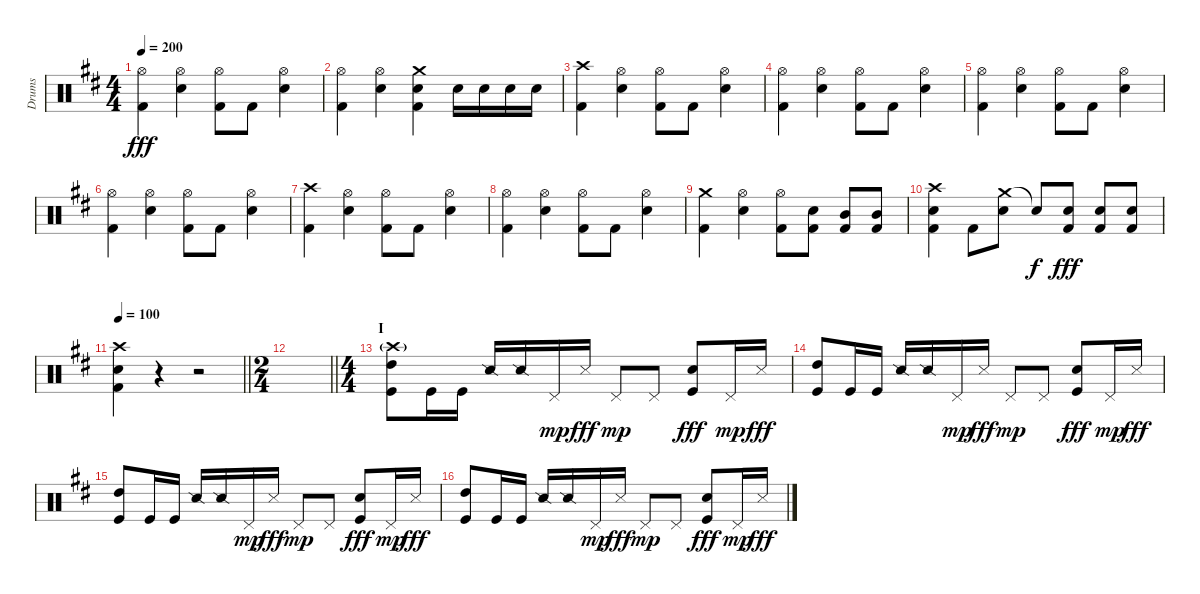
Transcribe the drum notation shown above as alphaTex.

\track ("Drums" "Drums") {instrument percussion}
\staff {score}
\articulation defaults
\ts (4 4)
\tempo 200
\clef neutral
\ks d
("Hi-Hat (open)" "Kick (hit) 2").4{dy fff} ("Hi-Hat (open)" "Snare (hit) 2").4 ("Hi-Hat (open)" "Kick (hit) 2").8 "Kick (hit) 2".8 ("Hi-Hat (open)" "Snare (hit) 2").4 |
("Hi-Hat (open)" "Kick (hit) 2").4 ("Hi-Hat (open)" "Snare (hit) 2").4 ("Crash medium (hit)" "Snare (hit) 2" "Kick (hit) 2").4 "Snare (hit) 2".16 "Snare (hit) 2".16 "Snare (hit) 2".16 "Snare (hit) 2".16 |
("Crash high (hit)" "Kick (hit) 2").4 ("Hi-Hat (open)" "Snare (hit) 2").4 ("Hi-Hat (open)" "Kick (hit) 2").8 "Kick (hit) 2".8 ("Hi-Hat (open)" "Snare (hit) 2").4 |
("Hi-Hat (open)" "Kick (hit) 2").4 ("Hi-Hat (open)" "Snare (hit) 2").4 ("Hi-Hat (open)" "Kick (hit) 2").8 "Kick (hit) 2".8 ("Hi-Hat (open)" "Snare (hit) 2").4 |
("Hi-Hat (open)" "Kick (hit) 2").4 ("Hi-Hat (open)" "Snare (hit) 2").4 ("Hi-Hat (open)" "Kick (hit) 2").8 "Kick (hit) 2".8 ("Hi-Hat (open)" "Snare (hit) 2").4 |
("Hi-Hat (open)" "Kick (hit) 2").4 ("Hi-Hat (open)" "Snare (hit) 2").4 ("Hi-Hat (open)" "Kick (hit) 2").8 "Kick (hit) 2".8 ("Hi-Hat (open)" "Snare (hit) 2").4 |
("Crash high (hit)" "Kick (hit) 2").4 ("Hi-Hat (open)" "Snare (hit) 2").4 ("Hi-Hat (open)" "Kick (hit) 2").8 "Kick (hit) 2".8 ("Hi-Hat (open)" "Snare (hit) 2").4 |
("Hi-Hat (open)" "Kick (hit) 2").4 ("Hi-Hat (open)" "Snare (hit) 2").4 ("Hi-Hat (open)" "Kick (hit) 2").8 "Kick (hit) 2".8 ("Hi-Hat (open)" "Snare (hit) 2").4 |
("Crash medium (hit)" "Kick (hit) 2").4 ("Hi-Hat (open)" "Snare (hit) 2").4 ("Hi-Hat (open)" "Kick (hit) 2").8 ("Snare (hit) 2" "Kick (hit) 2").8 ("Mid Tom (hit)" "Kick (hit) 2").8 ("Mid Tom (hit)" "Kick (hit) 2").8 |
("Crash high (hit)" "Snare (hit) 2" "Kick (hit) 2").4 "Kick (hit) 2".8 ("Crash medium (hit)" "Snare (hit) 2").8 "Snare (hit)"{t}.8{dy f} ("Snare (hit) 2" "Kick (hit) 2").8{dy fff} ("Snare (hit) 2" "Kick (hit) 2").8 ("Snare (hit) 2" "Kick (hit) 2").8 |
\tempo 100
\barLineRight lightlight
("Crash high (hit)" "Snare (hit) 2" "Kick (hit) 2").4 r.4 r.2{txt ""} |
\ts (2 4)
\barLineRight lightlight
|
\ts (4 4)
\section ("" "I")
("Crash high (hit)"{g} "High Tom (hit)" "Kick (hit)").8{txt ""} "Kick (hit)".16 "Kick (hit)".16 "Snare (side stick) 2".16 "Snare (side stick) 2".16 "Pedal Hi-Hat (hit)".16{dy mp} "Snare (side stick) 3".16{dy fff} "Pedal Hi-Hat (hit)".8{dy mp} "Pedal Hi-Hat (hit)".8 ("Electric Snare (hit)" "Kick (hit)").8{dy fff} "Pedal Hi-Hat (hit)".16{dy mp} "Snare (side stick) 3".16{dy fff} |
("High Tom (hit)" "Kick (hit)").8 "Kick (hit)".16 "Kick (hit)".16 "Snare (side stick) 2".16 "Snare (side stick) 2".16 "Pedal Hi-Hat (hit)".16{dy mp} "Snare (side stick) 3".16{dy fff} "Pedal Hi-Hat (hit)".8{dy mp} "Pedal Hi-Hat (hit)".8 ("Electric Snare (hit)" "Kick (hit)").8{dy fff} "Pedal Hi-Hat (hit)".16{dy mp} "Snare (side stick) 3".16{dy fff} |
("High Tom (hit)" "Kick (hit)").8 "Kick (hit)".16 "Kick (hit)".16 "Snare (side stick) 2".16 "Snare (side stick) 2".16 "Pedal Hi-Hat (hit)".16{dy mp} "Snare (side stick) 3".16{dy fff} "Pedal Hi-Hat (hit)".8{dy mp} "Pedal Hi-Hat (hit)".8 ("Electric Snare (hit)" "Kick (hit)").8{dy fff} "Pedal Hi-Hat (hit)".16{dy mp} "Snare (side stick) 3".16{dy fff} |
("High Tom (hit)" "Kick (hit)").8 "Kick (hit)".16 "Kick (hit)".16 "Snare (side stick) 2".16 "Snare (side stick) 2".16 "Pedal Hi-Hat (hit)".16{dy mp} "Snare (side stick) 3".16{dy fff} "Pedal Hi-Hat (hit)".8{dy mp} "Pedal Hi-Hat (hit)".8 ("Electric Snare (hit)" "Kick (hit)").8{dy fff} "Pedal Hi-Hat (hit)".16{dy mp} "Snare (side stick) 3".16{dy fff}
